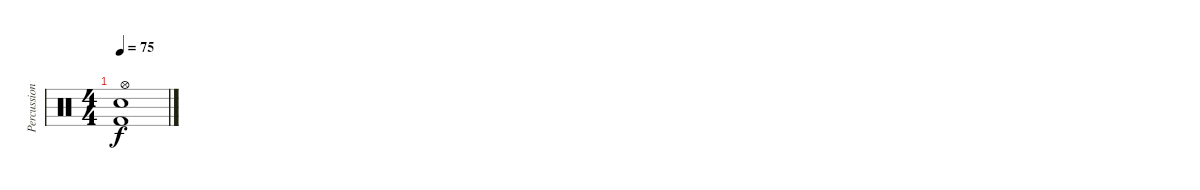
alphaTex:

\track ("Percussion" "Percussion") {instrument percussion}
\staff {score}
\articulation defaults
\ts (4 4)
\tempo 75
\clef neutral
\ks c
("Electric Snare (hit)" "Hi-Hat (open)" "Kick (hit) 2").1{dy f}
